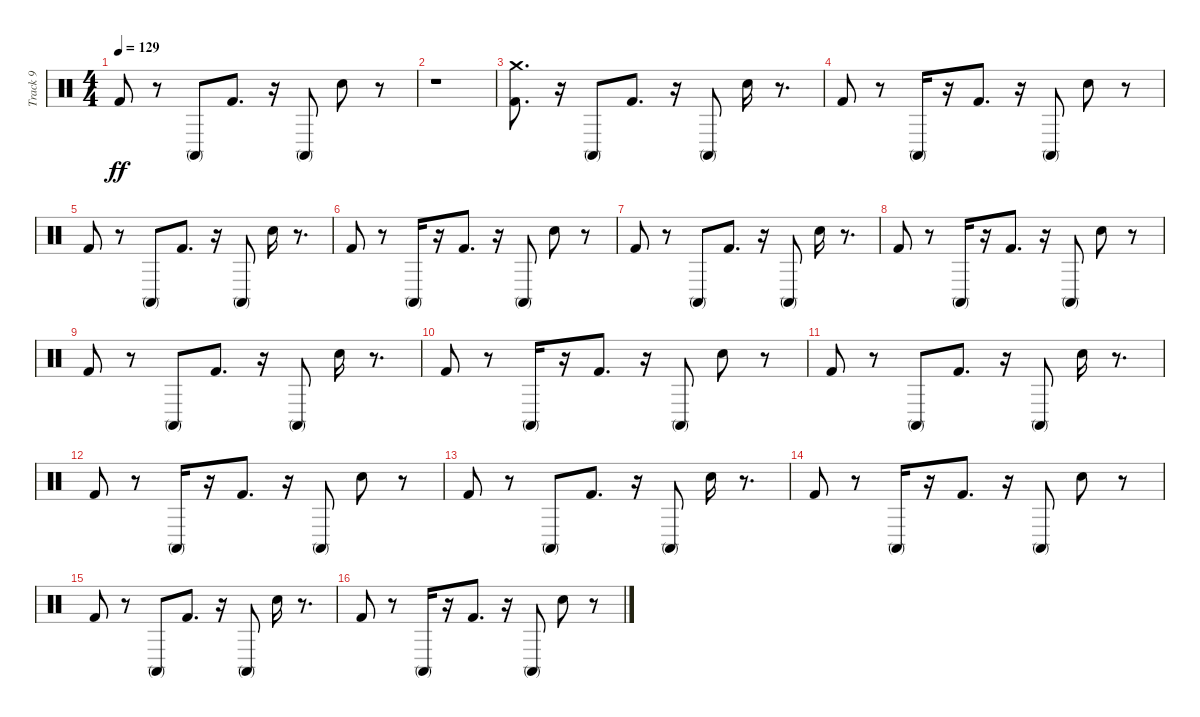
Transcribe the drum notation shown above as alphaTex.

\track ("Track 9" "Track 9") {instrument percussion}
\staff {score}
\articulation defaults
\ts (4 4)
\tempo 129
\clef neutral
\ks c "Kick (hit) 2".8{dy ff}
r.8 "Conga high (mute)".8 "Kick (hit) 2".8{d} r.16 "Conga high (mute)".8 "Snare (hit) 2".8 r.8 |
r.1 |
("Kick (hit) 2" "Crash medium (hit)").8{d} r.16 "Conga high (mute)".8 "Kick (hit) 2".8{d} r.16 "Conga high (mute)".8 "Snare (hit) 2".16 r.8{d} |
"Kick (hit) 2".8 r.8 "Conga high (mute)".16 r.16 "Kick (hit) 2".8{d} r.16 "Conga high (mute)".8 "Snare (hit) 2".8 r.8 |
"Kick (hit) 2".8 r.8 "Conga high (mute)".8 "Kick (hit) 2".8{d} r.16 "Conga high (mute)".8 "Snare (hit) 2".16 r.8{d} |
"Kick (hit) 2".8 r.8 "Conga high (mute)".16 r.16 "Kick (hit) 2".8{d} r.16 "Conga high (mute)".8 "Snare (hit) 2".8 r.8 |
"Kick (hit) 2".8 r.8 "Conga high (mute)".8 "Kick (hit) 2".8{d} r.16 "Conga high (mute)".8 "Snare (hit) 2".16 r.8{d} |
"Kick (hit) 2".8 r.8 "Conga high (mute)".16 r.16 "Kick (hit) 2".8{d} r.16 "Conga high (mute)".8 "Snare (hit) 2".8 r.8 |
"Kick (hit) 2".8 r.8 "Conga high (mute)".8 "Kick (hit) 2".8{d} r.16 "Conga high (mute)".8 "Snare (hit) 2".16 r.8{d} |
"Kick (hit) 2".8 r.8 "Conga high (mute)".16 r.16 "Kick (hit) 2".8{d} r.16 "Conga high (mute)".8 "Snare (hit) 2".8 r.8 |
"Kick (hit) 2".8 r.8 "Conga high (mute)".8 "Kick (hit) 2".8{d} r.16 "Conga high (mute)".8 "Snare (hit) 2".16 r.8{d} |
"Kick (hit) 2".8 r.8 "Conga high (mute)".16 r.16 "Kick (hit) 2".8{d} r.16 "Conga high (mute)".8 "Snare (hit) 2".8 r.8 |
"Kick (hit) 2".8 r.8 "Conga high (mute)".8 "Kick (hit) 2".8{d} r.16 "Conga high (mute)".8 "Snare (hit) 2".16 r.8{d} |
"Kick (hit) 2".8 r.8 "Conga high (mute)".16 r.16 "Kick (hit) 2".8{d} r.16 "Conga high (mute)".8 "Snare (hit) 2".8 r.8 |
"Kick (hit) 2".8 r.8 "Conga high (mute)".8 "Kick (hit) 2".8{d} r.16 "Conga high (mute)".8 "Snare (hit) 2".16 r.8{d} |
"Kick (hit) 2".8 r.8 "Conga high (mute)".16 r.16 "Kick (hit) 2".8{d} r.16 "Conga high (mute)".8 "Snare (hit) 2".8 r.8
